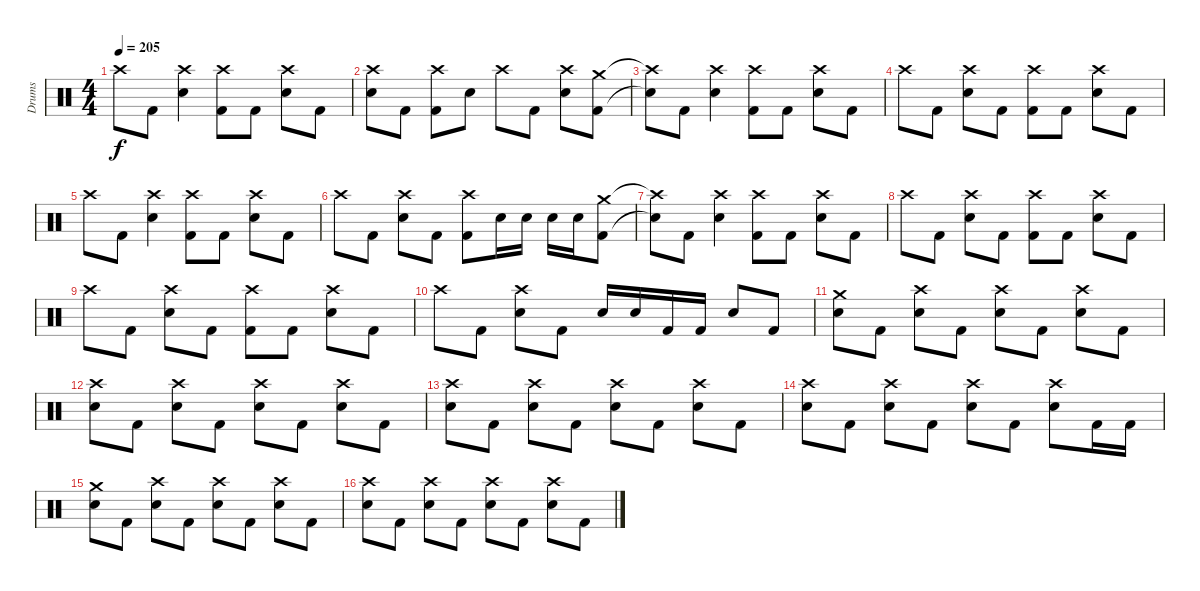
\track ("Drums" "Drums") {instrument percussion}
\staff {score}
\articulation defaults
\ts (4 4)
\tempo 205
\clef neutral
\ks c "Crash high (hit)".8{dy f} "Kick (hit) 2".8
("Crash high (hit)" "Electric Snare (hit)").4 ("Crash high (hit)" "Kick (hit) 2").8 "Kick (hit) 2".8 ("Crash high (hit)" "Electric Snare (hit)").8 "Kick (hit) 2".8 |
("Crash high (hit)" "Electric Snare (hit)").8 "Kick (hit) 2".8 ("Crash high (hit)" "Kick (hit) 2").8 "Electric Snare (hit)".8 "Crash high (hit)".8 "Kick (hit) 2".8 ("Crash high (hit)" "Electric Snare (hit)").8 ("Crash medium (hit)" "Kick (hit) 2").8 |
("Crash high (hit)"{t} "Snare (hit)"{t}).8 "Kick (hit) 2".8 ("Crash high (hit)" "Electric Snare (hit)").4 ("Crash high (hit)" "Kick (hit) 2").8 "Kick (hit) 2".8 ("Crash high (hit)" "Electric Snare (hit)").8 "Kick (hit) 2".8 |
"Crash high (hit)".8 "Kick (hit) 2".8 ("Crash high (hit)" "Electric Snare (hit)").8 "Kick (hit) 2".8 ("Crash high (hit)" "Kick (hit) 2").8 "Kick (hit) 2".8 ("Crash high (hit)" "Electric Snare (hit)").8 "Kick (hit) 2".8 |
"Crash high (hit)".8 "Kick (hit) 2".8 ("Crash high (hit)" "Electric Snare (hit)").4 ("Crash high (hit)" "Kick (hit) 2").8 "Kick (hit) 2".8 ("Crash high (hit)" "Electric Snare (hit)").8 "Kick (hit) 2".8 |
"Crash high (hit)".8 "Kick (hit) 2".8 ("Crash high (hit)" "Electric Snare (hit)").8 "Kick (hit) 2".8 ("Crash high (hit)" "Kick (hit) 2").8 "Electric Snare (hit)".16 "Electric Snare (hit)".16 "Electric Snare (hit)".16 "Electric Snare (hit)".16 ("Crash medium (hit)" "Kick (hit) 2").8 |
("Crash high (hit)"{t} "Snare (hit)"{t}).8 "Kick (hit) 2".8 ("Crash high (hit)" "Electric Snare (hit)").4 ("Crash high (hit)" "Kick (hit) 2").8 "Kick (hit) 2".8 ("Crash high (hit)" "Electric Snare (hit)").8 "Kick (hit) 2".8 |
"Crash high (hit)".8 "Kick (hit) 2".8 ("Crash high (hit)" "Electric Snare (hit)").8 "Kick (hit) 2".8 ("Crash high (hit)" "Kick (hit) 2").8 "Kick (hit) 2".8 ("Crash high (hit)" "Electric Snare (hit)").8 "Kick (hit) 2".8 |
"Crash high (hit)".8 "Kick (hit) 2".8 ("Crash high (hit)" "Electric Snare (hit)").8 "Kick (hit) 2".8 ("Crash high (hit)" "Kick (hit) 2").8 "Kick (hit) 2".8 ("Crash high (hit)" "Electric Snare (hit)").8 "Kick (hit) 2".8 |
"Crash high (hit)".8 "Kick (hit) 2".8 ("Crash high (hit)" "Electric Snare (hit)").8 "Kick (hit) 2".8 "Electric Snare (hit)".16 "Electric Snare (hit)".16 "Kick (hit) 2".16 "Kick (hit) 2".16 "Electric Snare (hit)".8 "Kick (hit) 2".8 |
("Crash medium (hit)" "Electric Snare (hit)").8 "Kick (hit) 2".8 ("Crash high (hit)" "Electric Snare (hit)").8 "Kick (hit) 2".8 ("Crash high (hit)" "Electric Snare (hit)").8 "Kick (hit) 2".8 ("Crash high (hit)" "Electric Snare (hit)").8 "Kick (hit) 2".8 |
("Crash high (hit)" "Electric Snare (hit)").8 "Kick (hit) 2".8 ("Crash high (hit)" "Electric Snare (hit)").8 "Kick (hit) 2".8 ("Crash high (hit)" "Electric Snare (hit)").8 "Kick (hit) 2".8 ("Crash high (hit)" "Electric Snare (hit)").8 "Kick (hit) 2".8 |
("Crash high (hit)" "Electric Snare (hit)").8 "Kick (hit) 2".8 ("Crash high (hit)" "Electric Snare (hit)").8 "Kick (hit) 2".8 ("Crash high (hit)" "Electric Snare (hit)").8 "Kick (hit) 2".8 ("Crash high (hit)" "Electric Snare (hit)").8 "Kick (hit) 2".8 |
("Crash high (hit)" "Electric Snare (hit)").8 "Kick (hit) 2".8 ("Crash high (hit)" "Electric Snare (hit)").8 "Kick (hit) 2".8 ("Crash high (hit)" "Electric Snare (hit)").8 "Kick (hit) 2".8 ("Crash high (hit)" "Electric Snare (hit)").8 "Kick (hit) 2".16 "Kick (hit) 2".16 |
("Crash medium (hit)" "Electric Snare (hit)").8 "Kick (hit) 2".8 ("Crash high (hit)" "Electric Snare (hit)").8 "Kick (hit) 2".8 ("Crash high (hit)" "Electric Snare (hit)").8 "Kick (hit) 2".8 ("Crash high (hit)" "Electric Snare (hit)").8 "Kick (hit) 2".8 |
("Crash high (hit)" "Electric Snare (hit)").8 "Kick (hit) 2".8 ("Crash high (hit)" "Electric Snare (hit)").8 "Kick (hit) 2".8 ("Crash high (hit)" "Electric Snare (hit)").8 "Kick (hit) 2".8 ("Crash high (hit)" "Electric Snare (hit)").8 "Kick (hit) 2".8
